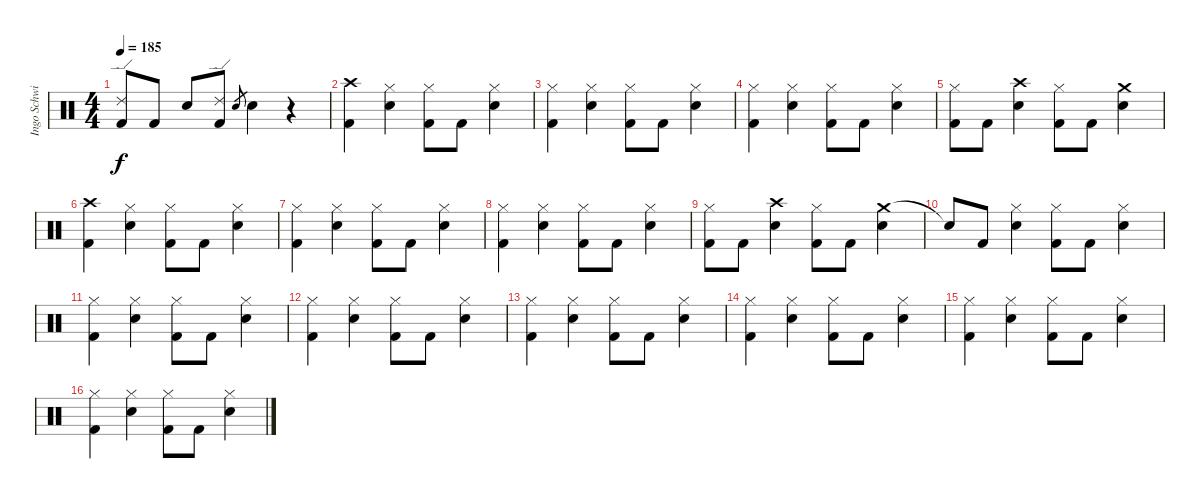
\track ("Ingo Schwischtenberg" "Ingo Schwi") {instrument percussion}
\staff {score}
\articulation defaults
\ts (4 4)
\tempo 185
\clef neutral
\ks c
("Ride (edge) 2" "Kick (hit) 2").8{dy f} "Kick (hit) 2".8 "Electric Snare (hit)".8 ("Ride (edge) 2" "Kick (hit) 2").8 "Electric Snare (hit)".8{gr} "Electric Snare (hit)".4 r.4 |
("Crash high (hit)" "Kick (hit) 2").4 ("Hi-Hat (closed)" "Electric Snare (hit)").4 ("Hi-Hat (closed)" "Kick (hit) 2").8 "Kick (hit) 2".8 ("Hi-Hat (closed)" "Electric Snare (hit)").4 |
("Hi-Hat (closed)" "Kick (hit) 2").4 ("Hi-Hat (closed)" "Electric Snare (hit)").4 ("Hi-Hat (closed)" "Kick (hit) 2").8 "Kick (hit) 2".8 ("Hi-Hat (closed)" "Electric Snare (hit)").4 |
("Hi-Hat (closed)" "Kick (hit) 2").4 ("Hi-Hat (closed)" "Electric Snare (hit)").4 ("Hi-Hat (closed)" "Kick (hit) 2").8 "Kick (hit) 2".8 ("Hi-Hat (closed)" "Electric Snare (hit)").4 |
("Hi-Hat (closed)" "Kick (hit) 2").8 "Kick (hit) 2".8 ("Crash high (hit)" "Electric Snare (hit)").4 ("Hi-Hat (closed)" "Kick (hit) 2").8 "Kick (hit) 2".8 ("Crash medium (hit)" "Electric Snare (hit)").4 |
("Crash high (hit)" "Kick (hit) 2").4 ("Hi-Hat (closed)" "Electric Snare (hit)").4 ("Hi-Hat (closed)" "Kick (hit) 2").8 "Kick (hit) 2".8 ("Hi-Hat (closed)" "Electric Snare (hit)").4 |
("Hi-Hat (closed)" "Kick (hit) 2").4 ("Hi-Hat (closed)" "Electric Snare (hit)").4 ("Hi-Hat (closed)" "Kick (hit) 2").8 "Kick (hit) 2".8 ("Hi-Hat (closed)" "Electric Snare (hit)").4 |
("Hi-Hat (closed)" "Kick (hit) 2").4 ("Hi-Hat (closed)" "Electric Snare (hit)").4 ("Hi-Hat (closed)" "Kick (hit) 2").8 "Kick (hit) 2".8 ("Hi-Hat (closed)" "Electric Snare (hit)").4 |
("Hi-Hat (closed)" "Kick (hit) 2").8 "Kick (hit) 2".8 ("Crash high (hit)" "Electric Snare (hit)").4 ("Hi-Hat (closed)" "Kick (hit) 2").8 "Kick (hit) 2".8 ("Crash medium (hit)" "Electric Snare (hit)").4 |
"Snare (hit)"{t}.8 "Kick (hit) 2".8 ("Hi-Hat (closed)" "Electric Snare (hit)").4 ("Hi-Hat (closed)" "Kick (hit) 2").8 "Kick (hit) 2".8 ("Hi-Hat (closed)" "Electric Snare (hit)").4 |
("Hi-Hat (closed)" "Kick (hit) 2").4 ("Hi-Hat (closed)" "Electric Snare (hit)").4 ("Hi-Hat (closed)" "Kick (hit) 2").8 "Kick (hit) 2".8 ("Hi-Hat (closed)" "Electric Snare (hit)").4 |
("Hi-Hat (closed)" "Kick (hit) 2").4 ("Hi-Hat (closed)" "Electric Snare (hit)").4 ("Hi-Hat (closed)" "Kick (hit) 2").8 "Kick (hit) 2".8 ("Hi-Hat (closed)" "Electric Snare (hit)").4 |
("Hi-Hat (closed)" "Kick (hit) 2").4 ("Hi-Hat (closed)" "Electric Snare (hit)").4 ("Hi-Hat (closed)" "Kick (hit) 2").8 "Kick (hit) 2".8 ("Hi-Hat (closed)" "Electric Snare (hit)").4 |
("Hi-Hat (closed)" "Kick (hit) 2").4 ("Hi-Hat (closed)" "Electric Snare (hit)").4 ("Hi-Hat (closed)" "Kick (hit) 2").8 "Kick (hit) 2".8 ("Hi-Hat (closed)" "Electric Snare (hit)").4 |
("Hi-Hat (closed)" "Kick (hit) 2").4 ("Hi-Hat (closed)" "Electric Snare (hit)").4 ("Hi-Hat (closed)" "Kick (hit) 2").8 "Kick (hit) 2".8 ("Hi-Hat (closed)" "Electric Snare (hit)").4 |
("Hi-Hat (closed)" "Kick (hit) 2").4 ("Hi-Hat (closed)" "Electric Snare (hit)").4 ("Hi-Hat (closed)" "Kick (hit) 2").8 "Kick (hit) 2".8 ("Hi-Hat (closed)" "Electric Snare (hit)").4
